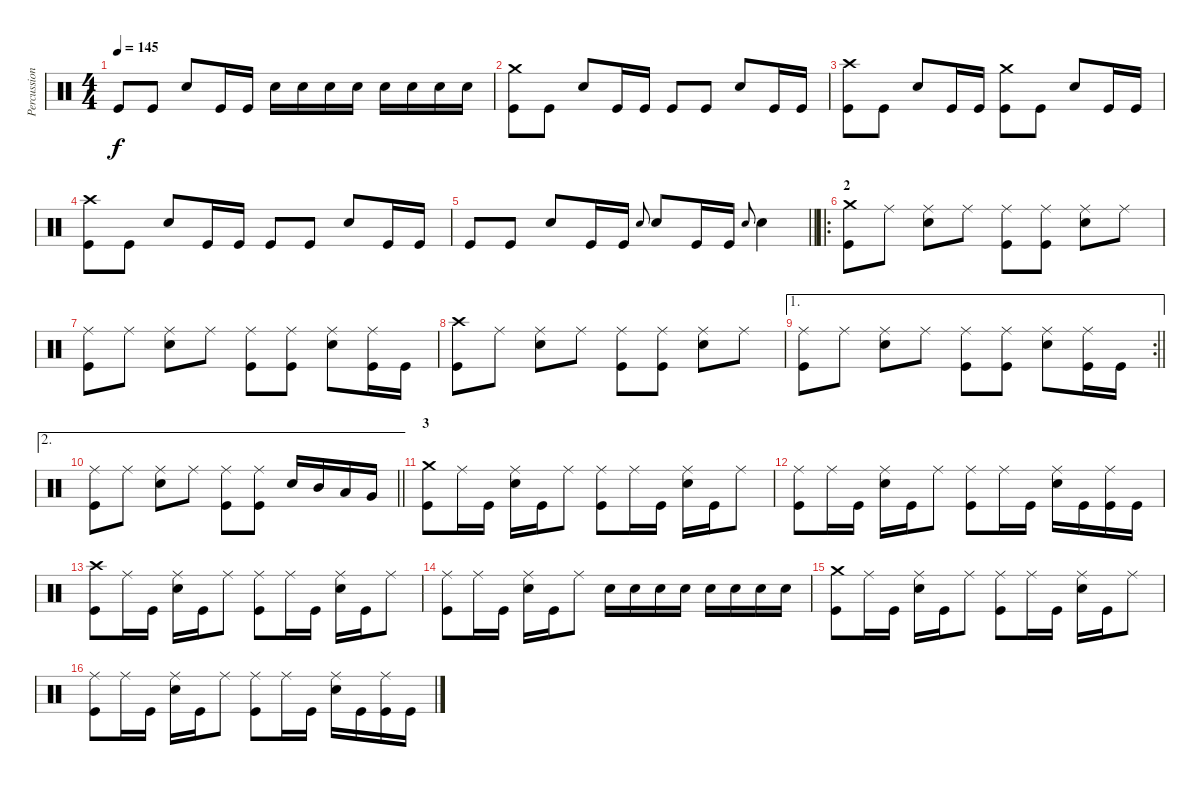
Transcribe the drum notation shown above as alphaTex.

\track ("Percussion" "Percussion") {instrument percussion}
\staff {score}
\articulation defaults
\ts (4 4)
\tempo 145
\clef neutral
\ks c "Kick (hit)".8{dy f} "Kick (hit)".8 "Snare (hit) 2".8 "Kick (hit)".16 "Kick (hit)".16 "Snare (hit) 2".16 "Snare (hit) 2".16 "Snare (hit) 2".16 "Snare (hit) 2".16 "Snare (hit) 2".16 "Snare (hit) 2".16 "Snare (hit) 2".16 "Snare (hit) 2".16
|
("Crash medium (hit)" "Kick (hit)").8 "Kick (hit)".8 "Snare (hit) 2".8 "Kick (hit)".16 "Kick (hit)".16 "Kick (hit)".8 "Kick (hit)".8 "Snare (hit) 2".8 "Kick (hit)".16 "Kick (hit)".16 |
("Crash high (hit)" "Kick (hit)").8 "Kick (hit)".8 "Snare (hit) 2".8 "Kick (hit)".16 "Kick (hit)".16 ("Crash medium (hit)" "Kick (hit)").8 "Kick (hit)".8 "Snare (hit) 2".8 "Kick (hit)".16 "Kick (hit)".16 |
("Crash high (hit)" "Kick (hit)").8 "Kick (hit)".8 "Snare (hit) 2".8 "Kick (hit)".16 "Kick (hit)".16 "Kick (hit)".8 "Kick (hit)".8 "Snare (hit) 2".8 "Kick (hit)".16 "Kick (hit)".16 |
\barLineRight lightlight "Kick (hit)".8 "Kick (hit)".8 "Snare (hit) 2".8 "Kick (hit)".16 "Kick (hit)".16 "Snare (hit) 2".8{gr onbeat} "Snare (hit) 2".8 "Kick (hit)".16 "Kick (hit)".16 "Snare (hit) 2".8{gr onbeat} "Snare (hit) 2".4
|
\ro
\section ("" "2")
("Crash medium (hit)" "Kick (hit)").8 "Ride (middle)".8 ("Ride (middle)" "Snare (hit) 2").8 "Ride (middle)".8 ("Ride (middle)" "Kick (hit)").8 ("Ride (middle)" "Kick (hit)").8 ("Ride (middle)" "Snare (hit) 2").8 "Ride (middle)".8 |
("Ride (middle)" "Kick (hit)").8 "Ride (middle)".8 ("Ride (middle)" "Snare (hit) 2").8 "Ride (middle)".8 ("Ride (middle)" "Kick (hit)").8 ("Ride (middle)" "Kick (hit)").8 ("Ride (middle)" "Snare (hit) 2").8 ("Ride (middle)" "Kick (hit)").16 "Kick (hit)".16 |
("Crash high (hit)" "Kick (hit)").8 "Ride (middle)".8 ("Ride (middle)" "Snare (hit) 2").8 "Ride (middle)".8 ("Ride (middle)" "Kick (hit)").8 ("Ride (middle)" "Kick (hit)").8 ("Ride (middle)" "Snare (hit) 2").8 "Ride (middle)".8 |
\ae 1
\rc 2
\barLineRight lightlight
("Ride (middle)" "Kick (hit)").8 "Ride (middle)".8 ("Ride (middle)" "Snare (hit) 2").8 "Ride (middle)".8 ("Ride (middle)" "Kick (hit)").8 ("Ride (middle)" "Kick (hit)").8 ("Ride (middle)" "Snare (hit) 2").8 ("Ride (middle)" "Kick (hit)").16 "Kick (hit)".16 |
\ae 2
\barLineRight lightlight
("Ride (middle)" "Kick (hit)").8 "Ride (middle)".8 ("Ride (middle)" "Snare (hit) 2").8 "Ride (middle)".8 ("Ride (middle)" "Kick (hit)").8 ("Ride (middle)" "Kick (hit)").8 "Snare (hit) 2".16 "Mid Tom (hit)".16 "Low Tom (hit)".16 "Very Low Tom (hit)".16 |
\section ("" "3")
("Crash medium (hit)" "Kick (hit)").8 "Ride (middle)".16 "Kick (hit)".16 ("Ride (middle)" "Snare (hit) 2").16 "Kick (hit)".16 "Ride (middle)".8 ("Ride (middle)" "Kick (hit)").8 "Ride (middle)".16 "Kick (hit)".16 ("Ride (middle)" "Snare (hit) 2").16 "Kick (hit)".16 "Ride (middle)".8 |
("Ride (middle)" "Kick (hit)").8 "Ride (middle)".16 "Kick (hit)".16 ("Ride (middle)" "Snare (hit) 2").16 "Kick (hit)".16 "Ride (middle)".8 ("Ride (middle)" "Kick (hit)").8 "Ride (middle)".16 "Kick (hit)".16 ("Ride (middle)" "Snare (hit) 2").16 "Kick (hit)".16 ("Ride (middle)" "Kick (hit)").16 "Kick (hit)".16 |
("Crash high (hit)" "Kick (hit)").8 "Ride (middle)".16 "Kick (hit)".16 ("Ride (middle)" "Snare (hit) 2").16 "Kick (hit)".16 "Ride (middle)".8 ("Ride (middle)" "Kick (hit)").8 "Ride (middle)".16 "Kick (hit)".16 ("Ride (middle)" "Snare (hit) 2").16 "Kick (hit)".16 "Ride (middle)".8 |
("Ride (middle)" "Kick (hit)").8 "Ride (middle)".16 "Kick (hit)".16 ("Ride (middle)" "Snare (hit) 2").16 "Kick (hit)".16 "Ride (middle)".8 "Snare (hit) 2".16 "Snare (hit) 2".16 "Snare (hit) 2".16 "Snare (hit) 2".16 "Snare (hit) 2".16 "Snare (hit) 2".16 "Snare (hit) 2".16 "Snare (hit) 2".16 |
("Crash medium (hit)" "Kick (hit)").8 "Ride (middle)".16 "Kick (hit)".16 ("Ride (middle)" "Snare (hit) 2").16 "Kick (hit)".16 "Ride (middle)".8 ("Ride (middle)" "Kick (hit)").8 "Ride (middle)".16 "Kick (hit)".16 ("Ride (middle)" "Snare (hit) 2").16 "Kick (hit)".16 "Ride (middle)".8 |
("Ride (middle)" "Kick (hit)").8 "Ride (middle)".16 "Kick (hit)".16 ("Ride (middle)" "Snare (hit) 2").16 "Kick (hit)".16 "Ride (middle)".8 ("Ride (middle)" "Kick (hit)").8 "Ride (middle)".16 "Kick (hit)".16 ("Ride (middle)" "Snare (hit) 2").16 "Kick (hit)".16 ("Ride (middle)" "Kick (hit)").16 "Kick (hit)".16
